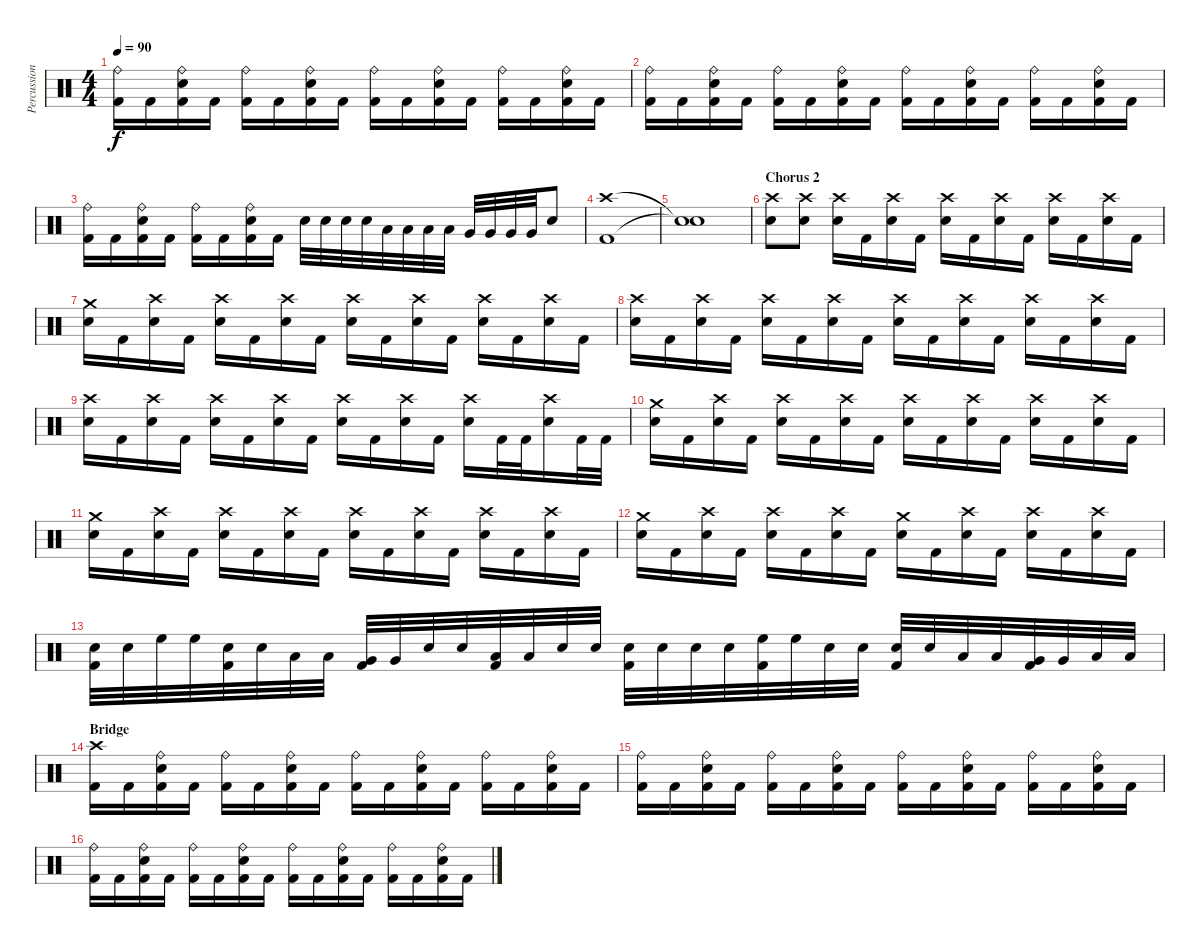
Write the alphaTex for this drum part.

\track ("Percussion" "Percussion") {instrument percussion}
\staff {score}
\articulation defaults
\ts (4 4)
\tempo 90
\clef neutral
\ks c
("Ride (bell)" "Kick (hit) 2").16{dy f} "Kick (hit) 2".16 ("Ride (bell)" "Electric Snare (hit)" "Kick (hit) 2").16 "Kick (hit) 2".16 ("Ride (bell)" "Kick (hit) 2").16 "Kick (hit) 2".16 ("Ride (bell)" "Electric Snare (hit)" "Kick (hit) 2").16 "Kick (hit) 2".16 ("Ride (bell)" "Kick (hit) 2").16 "Kick (hit) 2".16 ("Ride (bell)" "Electric Snare (hit)" "Kick (hit) 2").16 "Kick (hit) 2".16 ("Ride (bell)" "Kick (hit) 2").16 "Kick (hit) 2".16 ("Ride (bell)" "Electric Snare (hit)" "Kick (hit) 2").16 "Kick (hit) 2".16 |
("Ride (bell)" "Kick (hit) 2").16 "Kick (hit) 2".16 ("Ride (bell)" "Electric Snare (hit)" "Kick (hit) 2").16 "Kick (hit) 2".16 ("Ride (bell)" "Kick (hit) 2").16 "Kick (hit) 2".16 ("Ride (bell)" "Electric Snare (hit)" "Kick (hit) 2").16 "Kick (hit) 2".16 ("Ride (bell)" "Kick (hit) 2").16 "Kick (hit) 2".16 ("Ride (bell)" "Electric Snare (hit)" "Kick (hit) 2").16 "Kick (hit) 2".16 ("Ride (bell)" "Kick (hit) 2").16 "Kick (hit) 2".16 ("Ride (bell)" "Electric Snare (hit)" "Kick (hit) 2").16 "Kick (hit) 2".16 |
("Ride (bell)" "Kick (hit) 2").16 "Kick (hit) 2".16 ("Ride (bell)" "Electric Snare (hit)" "Kick (hit) 2").16 "Kick (hit) 2".16 ("Ride (bell)" "Kick (hit) 2").16 "Kick (hit) 2".16 ("Ride (bell)" "Electric Snare (hit)" "Kick (hit) 2").16 "Kick (hit) 2".16 "Electric Snare (hit)".32 "Electric Snare (hit)".32 "Electric Snare (hit)".32 "Electric Snare (hit)".32 "Low Tom (hit)".32 "Low Tom (hit)".32 "Low Tom (hit)".32 "Low Tom (hit)".32 "Very Low Tom (hit)".32 "Very Low Tom (hit)".32 "Very Low Tom (hit)".32 "Very Low Tom (hit)".32 "Electric Snare (hit)".8 |
("Crash high (hit)" "Kick (hit) 2").1 |
("Snare (hit)"{t} "Snare (hit)"{t}).1 |
\section ("" "Chorus 2")
("Crash high (hit)" "Electric Snare (hit)").8 ("Crash high (hit)" "Electric Snare (hit)").8 ("Crash high (hit)" "Electric Snare (hit)").16 "Kick (hit) 2".16 ("Crash high (hit)" "Electric Snare (hit)").16 "Kick (hit) 2".16 ("Crash high (hit)" "Electric Snare (hit)").16 "Kick (hit) 2".16 ("Crash high (hit)" "Electric Snare (hit)").16 "Kick (hit) 2".16 ("Crash high (hit)" "Electric Snare (hit)").16 "Kick (hit) 2".16 ("Crash high (hit)" "Electric Snare (hit)").16 "Kick (hit) 2".16 |
("Crash medium (hit)" "Electric Snare (hit)").16 "Kick (hit) 2".16 ("Crash high (hit)" "Electric Snare (hit)").16 "Kick (hit) 2".16 ("Crash high (hit)" "Electric Snare (hit)").16 "Kick (hit) 2".16 ("Crash high (hit)" "Electric Snare (hit)").16 "Kick (hit) 2".16 ("Crash high (hit)" "Electric Snare (hit)").16 "Kick (hit) 2".16 ("Crash high (hit)" "Electric Snare (hit)").16 "Kick (hit) 2".16 ("Crash high (hit)" "Electric Snare (hit)").16 "Kick (hit) 2".16 ("Crash high (hit)" "Electric Snare (hit)").16 "Kick (hit) 2".16 |
("Crash high (hit)" "Electric Snare (hit)").16 "Kick (hit) 2".16 ("Crash high (hit)" "Electric Snare (hit)").16 "Kick (hit) 2".16 ("Crash high (hit)" "Electric Snare (hit)").16 "Kick (hit) 2".16 ("Crash high (hit)" "Electric Snare (hit)").16 "Kick (hit) 2".16 ("Crash high (hit)" "Electric Snare (hit)").16 "Kick (hit) 2".16 ("Crash high (hit)" "Electric Snare (hit)").16 "Kick (hit) 2".16 ("Crash high (hit)" "Electric Snare (hit)").16 "Kick (hit) 2".16 ("Crash high (hit)" "Electric Snare (hit)").16 "Kick (hit) 2".16 |
("Crash high (hit)" "Electric Snare (hit)").16 "Kick (hit) 2".16 ("Crash high (hit)" "Electric Snare (hit)").16 "Kick (hit) 2".16 ("Crash high (hit)" "Electric Snare (hit)").16 "Kick (hit) 2".16 ("Crash high (hit)" "Electric Snare (hit)").16 "Kick (hit) 2".16 ("Crash high (hit)" "Electric Snare (hit)").16 "Kick (hit) 2".16 ("Crash high (hit)" "Electric Snare (hit)").16 "Kick (hit) 2".16 ("Crash high (hit)" "Electric Snare (hit)").16 "Kick (hit) 2".32 "Kick (hit) 2".32 ("Crash high (hit)" "Electric Snare (hit)").16 "Kick (hit) 2".32 "Kick (hit) 2".32 |
("Crash medium (hit)" "Electric Snare (hit)").16 "Kick (hit) 2".16 ("Crash high (hit)" "Electric Snare (hit)").16 "Kick (hit) 2".16 ("Crash high (hit)" "Electric Snare (hit)").16 "Kick (hit) 2".16 ("Crash high (hit)" "Electric Snare (hit)").16 "Kick (hit) 2".16 ("Crash high (hit)" "Electric Snare (hit)").16 "Kick (hit) 2".16 ("Crash high (hit)" "Electric Snare (hit)").16 "Kick (hit) 2".16 ("Crash high (hit)" "Electric Snare (hit)").16 "Kick (hit) 2".16 ("Crash high (hit)" "Electric Snare (hit)").16 "Kick (hit) 2".16 |
("Crash medium (hit)" "Electric Snare (hit)").16 "Kick (hit) 2".16 ("Crash high (hit)" "Electric Snare (hit)").16 "Kick (hit) 2".16 ("Crash high (hit)" "Electric Snare (hit)").16 "Kick (hit) 2".16 ("Crash high (hit)" "Electric Snare (hit)").16 "Kick (hit) 2".16 ("Crash high (hit)" "Electric Snare (hit)").16 "Kick (hit) 2".16 ("Crash high (hit)" "Electric Snare (hit)").16 "Kick (hit) 2".16 ("Crash high (hit)" "Electric Snare (hit)").16 "Kick (hit) 2".16 ("Crash high (hit)" "Electric Snare (hit)").16 "Kick (hit) 2".16 |
("Crash medium (hit)" "Electric Snare (hit)").16 "Kick (hit) 2".16 ("Crash high (hit)" "Electric Snare (hit)").16 "Kick (hit) 2".16 ("Crash high (hit)" "Electric Snare (hit)").16 "Kick (hit) 2".16 ("Crash high (hit)" "Electric Snare (hit)").16 "Kick (hit) 2".16 ("Crash medium (hit)" "Electric Snare (hit)").16 "Kick (hit) 2".16 ("Crash high (hit)" "Electric Snare (hit)").16 "Kick (hit) 2".16 ("Crash high (hit)" "Electric Snare (hit)").16 "Kick (hit) 2".16 ("Crash high (hit)" "Electric Snare (hit)").16 "Kick (hit) 2".16 |
("Electric Snare (hit)" "Kick (hit) 2").32 "Electric Snare (hit)".32 "High Floor Tom (hit)".32 "High Floor Tom (hit)".32 ("Electric Snare (hit)" "Kick (hit) 2").32 "Electric Snare (hit)".32 "Low Tom (hit)".32 "Low Tom (hit)".32 ("Very Low Tom (hit)" "Kick (hit) 2").32 "Very Low Tom (hit)".32 "Electric Snare (hit)".32 "Electric Snare (hit)".32 ("Low Floor Tom (hit)" "Kick (hit) 2").32 "Low Floor Tom (hit)".32 "Electric Snare (hit)".32 "Electric Snare (hit)".32 ("Electric Snare (hit)" "Kick (hit) 2").32 "Electric Snare (hit)".32 "Electric Snare (hit)".32 "Electric Snare (hit)".32 ("High Floor Tom (hit)" "Kick (hit) 2").32 "High Floor Tom (hit)".32 "Electric Snare (hit)".32 "Electric Snare (hit)".32 ("Electric Snare (hit)" "Kick (hit) 2").32 "Electric Snare (hit)".32 "Low Tom (hit)".32 "Low Tom (hit)".32 ("Very Low Tom (hit)" "Kick (hit) 2").32 "Very Low Tom (hit)".32 "Low Floor Tom (hit)".32 "Low Floor Tom (hit)".32 |
\section ("" "Bridge")
("Crash high (hit)" "Kick (hit) 2").16 "Kick (hit) 2".16 ("Ride (bell)" "Electric Snare (hit)" "Kick (hit) 2").16 "Kick (hit) 2".16 ("Ride (bell)" "Kick (hit) 2").16 "Kick (hit) 2".16 ("Ride (bell)" "Electric Snare (hit)" "Kick (hit) 2").16 "Kick (hit) 2".16 ("Ride (bell)" "Kick (hit) 2").16 "Kick (hit) 2".16 ("Ride (bell)" "Electric Snare (hit)" "Kick (hit) 2").16 "Kick (hit) 2".16 ("Ride (bell)" "Kick (hit) 2").16 "Kick (hit) 2".16 ("Ride (bell)" "Electric Snare (hit)" "Kick (hit) 2").16 "Kick (hit) 2".16 |
("Ride (bell)" "Kick (hit) 2").16 "Kick (hit) 2".16 ("Ride (bell)" "Electric Snare (hit)" "Kick (hit) 2").16 "Kick (hit) 2".16 ("Ride (bell)" "Kick (hit) 2").16 "Kick (hit) 2".16 ("Ride (bell)" "Electric Snare (hit)" "Kick (hit) 2").16 "Kick (hit) 2".16 ("Ride (bell)" "Kick (hit) 2").16 "Kick (hit) 2".16 ("Ride (bell)" "Electric Snare (hit)" "Kick (hit) 2").16 "Kick (hit) 2".16 ("Ride (bell)" "Kick (hit) 2").16 "Kick (hit) 2".16 ("Ride (bell)" "Electric Snare (hit)" "Kick (hit) 2").16 "Kick (hit) 2".16 |
("Ride (bell)" "Kick (hit) 2").16 "Kick (hit) 2".16 ("Ride (bell)" "Electric Snare (hit)" "Kick (hit) 2").16 "Kick (hit) 2".16 ("Ride (bell)" "Kick (hit) 2").16 "Kick (hit) 2".16 ("Ride (bell)" "Electric Snare (hit)" "Kick (hit) 2").16 "Kick (hit) 2".16 ("Ride (bell)" "Kick (hit) 2").16 "Kick (hit) 2".16 ("Ride (bell)" "Electric Snare (hit)" "Kick (hit) 2").16 "Kick (hit) 2".16 ("Ride (bell)" "Kick (hit) 2").16 "Kick (hit) 2".16 ("Ride (bell)" "Electric Snare (hit)" "Kick (hit) 2").16 "Kick (hit) 2".16
